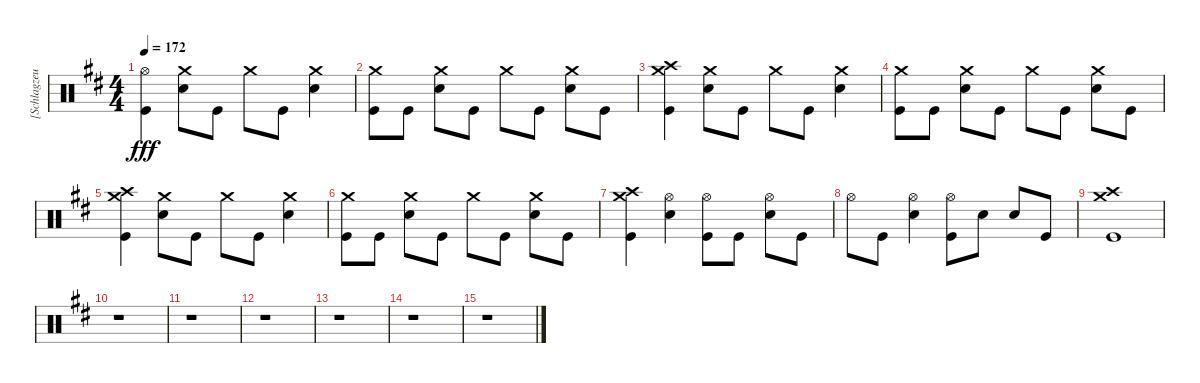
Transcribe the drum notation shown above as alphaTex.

\track ("[Schlagzeug]" "[Schlagzeu") {instrument percussion}
\staff {score}
\articulation defaults
\ts (4 4)
\tempo 172
\clef neutral
\ks d
("Hi-Hat (open)" "Kick (hit)").4{dy fff} ("Crash medium (hit)" "Electric Snare (hit)").8 "Kick (hit)".8 "Crash medium (hit)".8 "Kick (hit)".8 ("Crash medium (hit)" "Electric Snare (hit)").4 |
("Crash medium (hit)" "Kick (hit)").8 "Kick (hit)".8 ("Crash medium (hit)" "Electric Snare (hit)").8 "Kick (hit)".8 "Crash medium (hit)".8 "Kick (hit)".8 ("Crash medium (hit)" "Electric Snare (hit)").8 "Kick (hit)".8 |
("Crash medium (hit)" "Crash high (hit)" "Kick (hit)").4 ("Crash medium (hit)" "Electric Snare (hit)").8 "Kick (hit)".8 "Crash medium (hit)".8 "Kick (hit)".8 ("Crash medium (hit)" "Electric Snare (hit)").4 |
("Crash medium (hit)" "Kick (hit)").8 "Kick (hit)".8 ("Crash medium (hit)" "Electric Snare (hit)").8 "Kick (hit)".8 "Crash medium (hit)".8 "Kick (hit)".8 ("Crash medium (hit)" "Electric Snare (hit)").8 "Kick (hit)".8 |
("Crash medium (hit)" "Crash high (hit)" "Kick (hit)").4 ("Crash medium (hit)" "Electric Snare (hit)").8 "Kick (hit)".8 "Crash medium (hit)".8 "Kick (hit)".8 ("Crash medium (hit)" "Electric Snare (hit)").4 |
("Crash medium (hit)" "Kick (hit)").8 "Kick (hit)".8 ("Crash medium (hit)" "Electric Snare (hit)").8 "Kick (hit)".8 "Crash medium (hit)".8 "Kick (hit)".8 ("Crash medium (hit)" "Electric Snare (hit)").8 "Kick (hit)".8 |
("Crash medium (hit)" "Crash high (hit)" "Kick (hit)").4 ("Hi-Hat (open)" "Electric Snare (hit)").4 ("Hi-Hat (open)" "Kick (hit)").8 "Kick (hit)".8 ("Hi-Hat (open)" "Electric Snare (hit)").8 "Kick (hit)".8 |
"Hi-Hat (open)".8 "Kick (hit)".8 ("Hi-Hat (open)" "Electric Snare (hit)").4 ("Hi-Hat (open)" "Kick (hit)").8 "Electric Snare (hit)".8 "Electric Snare (hit)".8 "Kick (hit)".8 |
("Crash high (hit)" "Crash medium (hit)" "Kick (hit)").1 |
r.1 |
r.1 |
r.1 |
r.1 |
r.1 |
r.1
